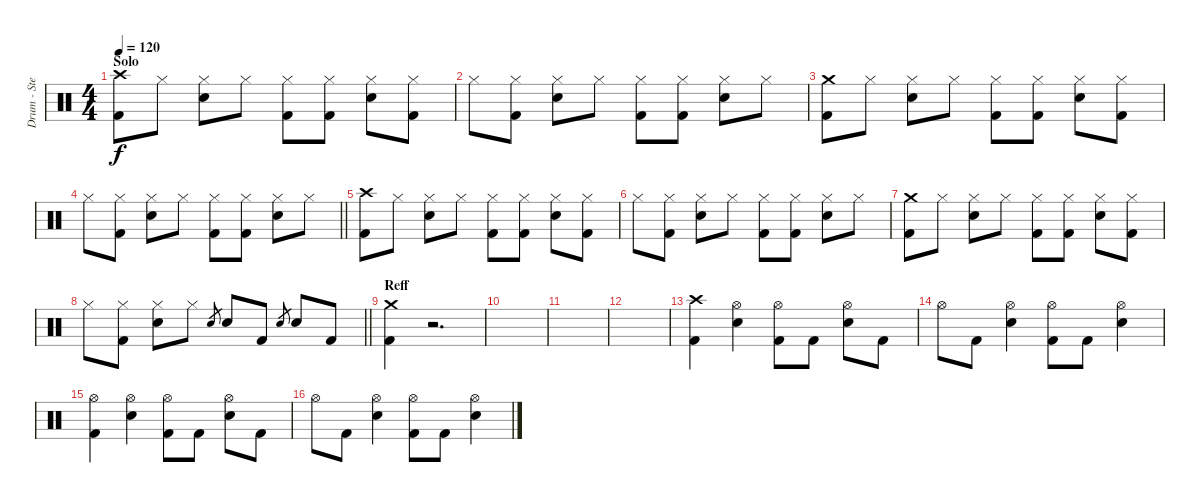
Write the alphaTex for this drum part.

\track ("Drum - Stevie Morley Item" "Drum - Ste") {instrument percussion}
\staff {score}
\articulation defaults
\ts (4 4)
\section ("" "Solo")
\tempo 120
\clef neutral
\ks c
("Crash high (hit)" "Kick (hit) 2").8{dy f} "Hi-Hat (closed)".8 ("Hi-Hat (closed)" "Snare (hit) 2").8 "Hi-Hat (closed)".8 ("Hi-Hat (closed)" "Kick (hit) 2").8 ("Hi-Hat (closed)" "Kick (hit) 2").8 ("Hi-Hat (closed)" "Snare (hit) 2").8 ("Hi-Hat (closed)" "Kick (hit) 2").8 |
"Hi-Hat (closed)".8 ("Hi-Hat (closed)" "Kick (hit) 2").8 ("Hi-Hat (closed)" "Snare (hit) 2").8 "Hi-Hat (closed)".8 ("Hi-Hat (closed)" "Kick (hit) 2").8 ("Hi-Hat (closed)" "Kick (hit) 2").8 ("Hi-Hat (closed)" "Snare (hit) 2").8 "Hi-Hat (closed)".8 |
("Crash medium (hit)" "Kick (hit) 2").8 "Hi-Hat (closed)".8 ("Hi-Hat (closed)" "Snare (hit) 2").8 "Hi-Hat (closed)".8 ("Hi-Hat (closed)" "Kick (hit) 2").8 ("Hi-Hat (closed)" "Kick (hit) 2").8 ("Hi-Hat (closed)" "Snare (hit) 2").8 ("Hi-Hat (closed)" "Kick (hit) 2").8 |
\barLineRight lightlight "Hi-Hat (closed)".8
("Hi-Hat (closed)" "Kick (hit) 2").8 ("Hi-Hat (closed)" "Snare (hit) 2").8 "Hi-Hat (closed)".8 ("Hi-Hat (closed)" "Kick (hit) 2").8 ("Hi-Hat (closed)" "Kick (hit) 2").8 ("Hi-Hat (closed)" "Snare (hit) 2").8 "Hi-Hat (closed)".8 |
("Crash high (hit)" "Kick (hit) 2").8 "Hi-Hat (closed)".8 ("Hi-Hat (closed)" "Snare (hit) 2").8 "Hi-Hat (closed)".8 ("Hi-Hat (closed)" "Kick (hit) 2").8 ("Hi-Hat (closed)" "Kick (hit) 2").8 ("Hi-Hat (closed)" "Snare (hit) 2").8 ("Hi-Hat (closed)" "Kick (hit) 2").8 |
"Hi-Hat (closed)".8 ("Hi-Hat (closed)" "Kick (hit) 2").8 ("Hi-Hat (closed)" "Snare (hit) 2").8 "Hi-Hat (closed)".8 ("Hi-Hat (closed)" "Kick (hit) 2").8 ("Hi-Hat (closed)" "Kick (hit) 2").8 ("Hi-Hat (closed)" "Snare (hit) 2").8 "Hi-Hat (closed)".8 |
("Crash medium (hit)" "Kick (hit) 2").8 "Hi-Hat (closed)".8 ("Hi-Hat (closed)" "Snare (hit) 2").8 "Hi-Hat (closed)".8 ("Hi-Hat (closed)" "Kick (hit) 2").8 ("Hi-Hat (closed)" "Kick (hit) 2").8 ("Hi-Hat (closed)" "Snare (hit) 2").8 ("Hi-Hat (closed)" "Kick (hit) 2").8 |
\barLineRight lightlight "Hi-Hat (closed)".8
("Hi-Hat (closed)" "Kick (hit) 2").8 ("Hi-Hat (closed)" "Snare (hit) 2").8 "Hi-Hat (closed)".8 "Snare (hit) 2".8{gr} "Snare (hit) 2".8 "Kick (hit) 2".8 "Snare (hit) 2".8{gr} "Snare (hit) 2".8 "Kick (hit) 2".8 |
\section ("" "Reff")
("Kick (hit) 2" "Crash medium (hit)").4 r.2{d} |
|
|
|
("Crash high (hit)" "Kick (hit) 2").4 ("Hi-Hat (open)" "Snare (hit) 2").4 ("Hi-Hat (open)" "Kick (hit) 2").8 "Kick (hit) 2".8 ("Hi-Hat (open)" "Snare (hit) 2").8 "Kick (hit) 2".8 |
"Hi-Hat (open)".8 "Kick (hit) 2".8 ("Hi-Hat (open)" "Snare (hit) 2").4 ("Hi-Hat (open)" "Kick (hit) 2").8 "Kick (hit) 2".8 ("Hi-Hat (open)" "Snare (hit) 2").4 |
("Hi-Hat (open)" "Kick (hit) 2").4 ("Hi-Hat (open)" "Snare (hit) 2").4 ("Hi-Hat (open)" "Kick (hit) 2").8 "Kick (hit) 2".8 ("Hi-Hat (open)" "Snare (hit) 2").8 "Kick (hit) 2".8 |
"Hi-Hat (open)".8 "Kick (hit) 2".8 ("Hi-Hat (open)" "Snare (hit) 2").4 ("Hi-Hat (open)" "Kick (hit) 2").8 "Kick (hit) 2".8 ("Hi-Hat (open)" "Snare (hit) 2").4
